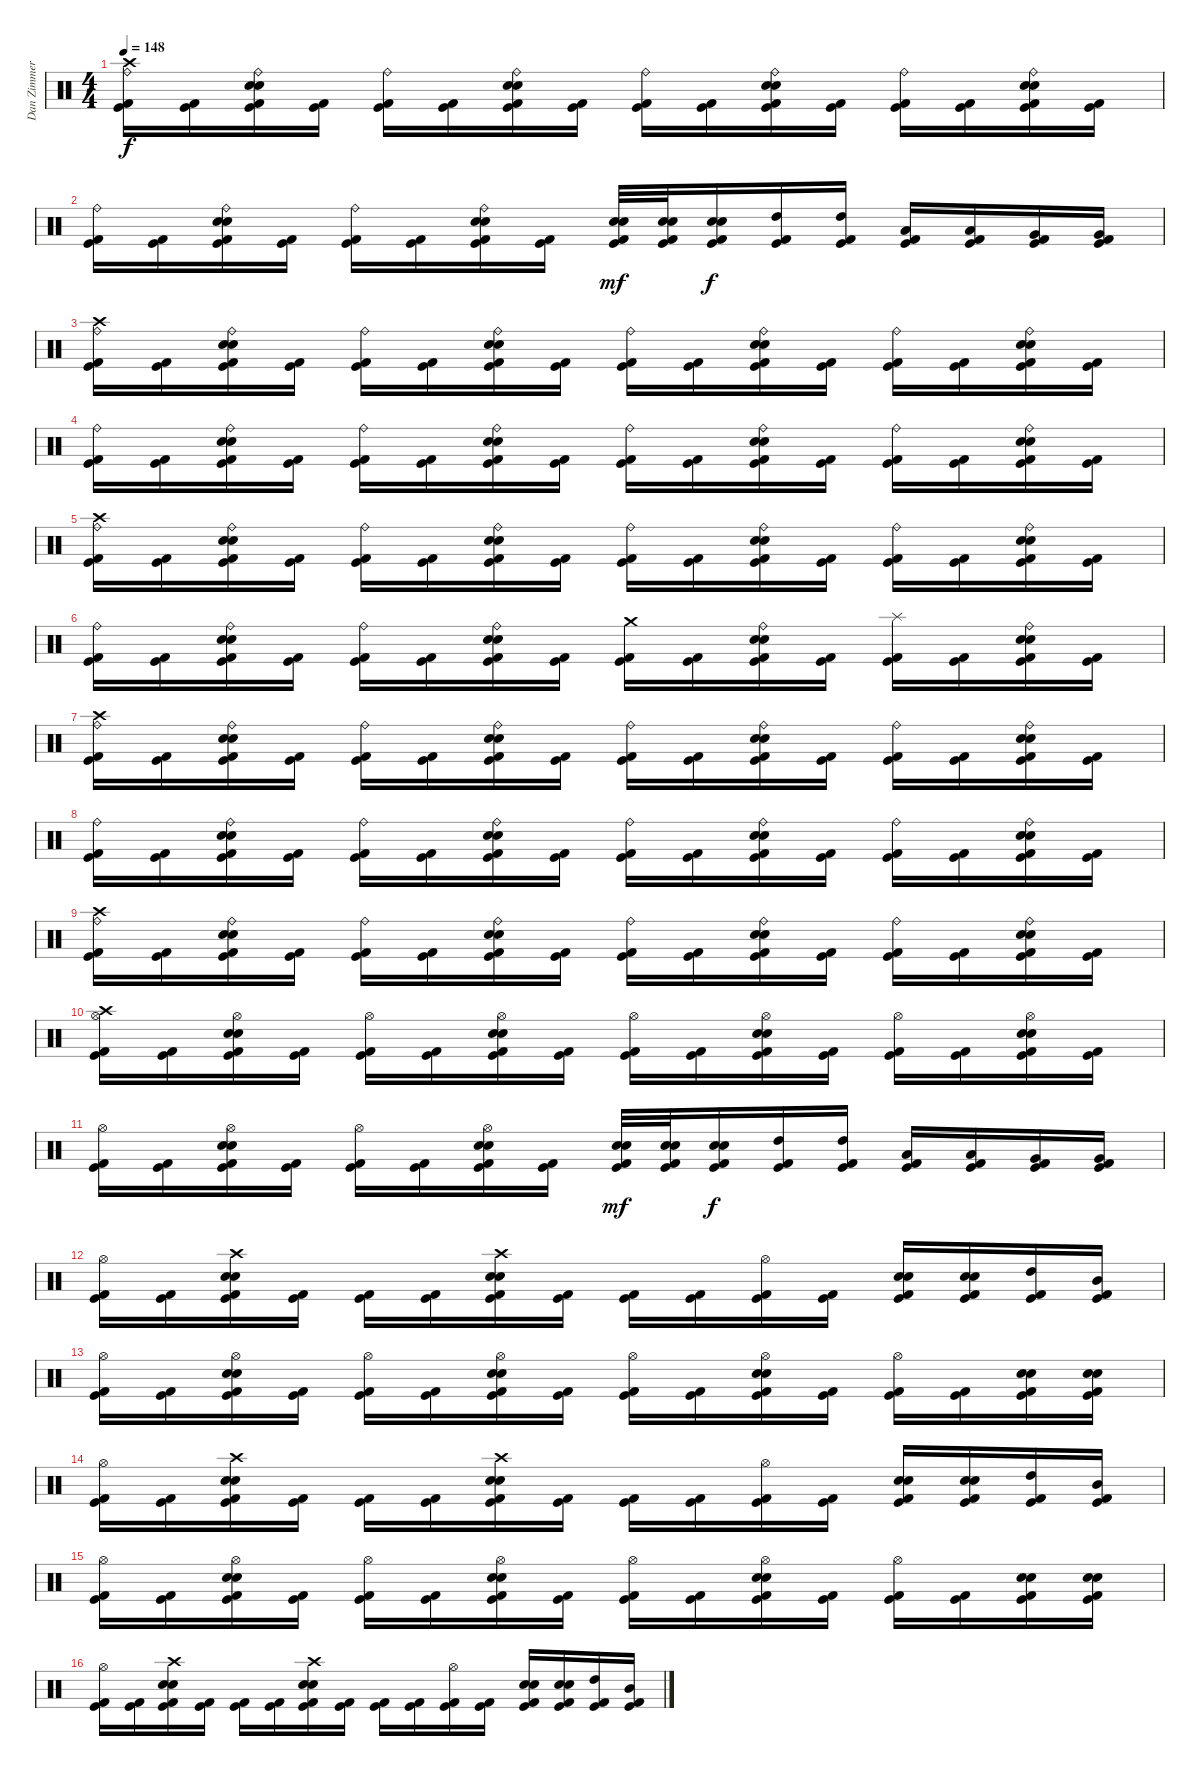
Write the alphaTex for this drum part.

\track ("Dan Zimmerman<Drum>" "Dan Zimmer") {instrument percussion}
\staff {score}
\articulation defaults
\ts (4 4)
\tempo 148
\clef neutral
\ks c
("Ride (bell)" "Crash high (hit)" "Kick (hit) 2" "Kick (hit)").16{dy f} ("Kick (hit) 2" "Kick (hit)").16 ("Ride (bell)" "Snare (hit) 2" "Electric Snare (hit)" "Kick (hit) 2" "Kick (hit)").16 ("Kick (hit) 2" "Kick (hit)").16 ("Ride (bell)" "Kick (hit) 2" "Kick (hit)").16 ("Kick (hit) 2" "Kick (hit)").16 ("Ride (bell)" "Snare (hit) 2" "Electric Snare (hit)" "Kick (hit) 2" "Kick (hit)").16 ("Kick (hit) 2" "Kick (hit)").16 ("Ride (bell)" "Kick (hit) 2" "Kick (hit)").16 ("Kick (hit) 2" "Kick (hit)").16 ("Ride (bell)" "Snare (hit) 2" "Electric Snare (hit)" "Kick (hit) 2" "Kick (hit)").16 ("Kick (hit) 2" "Kick (hit)").16 ("Ride (bell)" "Kick (hit) 2" "Kick (hit)").16 ("Kick (hit) 2" "Kick (hit)").16 ("Ride (bell)" "Snare (hit) 2" "Electric Snare (hit)" "Kick (hit) 2" "Kick (hit)").16 ("Kick (hit) 2" "Kick (hit)").16 |
("Ride (bell)" "Kick (hit) 2" "Kick (hit)").16 ("Kick (hit) 2" "Kick (hit)").16 ("Ride (bell)" "Snare (hit) 2" "Electric Snare (hit)" "Kick (hit) 2" "Kick (hit)").16 ("Kick (hit) 2" "Kick (hit)").16 ("Ride (bell)" "Kick (hit) 2" "Kick (hit)").16 ("Kick (hit) 2" "Kick (hit)").16 ("Ride (bell)" "Snare (hit) 2" "Electric Snare (hit)" "Kick (hit) 2" "Kick (hit)").16 ("Kick (hit) 2" "Kick (hit)").16 ("Snare (hit) 2" "Electric Snare (hit)" "Kick (hit) 2" "Kick (hit)").32{dy mf} ("Snare (hit) 2" "Electric Snare (hit)" "Kick (hit) 2" "Kick (hit)").32 ("Electric Snare (hit)" "Snare (hit) 2" "Kick (hit) 2" "Kick (hit)").16{dy f} ("High Tom (hit)" "Kick (hit) 2" "Kick (hit)").16 ("High Tom (hit)" "Kick (hit) 2" "Kick (hit)").16 ("Low Tom (hit)" "Kick (hit) 2" "Kick (hit)").16 ("Low Tom (hit)" "Kick (hit) 2" "Kick (hit)").16 ("Very Low Tom (hit)" "Kick (hit) 2" "Kick (hit)").16 ("Very Low Tom (hit)" "Kick (hit) 2" "Kick (hit)").16 |
("Ride (bell)" "Crash high (hit)" "Kick (hit) 2" "Kick (hit)").16 ("Kick (hit) 2" "Kick (hit)").16 ("Ride (bell)" "Snare (hit) 2" "Electric Snare (hit)" "Kick (hit) 2" "Kick (hit)").16 ("Kick (hit) 2" "Kick (hit)").16 ("Ride (bell)" "Kick (hit) 2" "Kick (hit)").16 ("Kick (hit) 2" "Kick (hit)").16 ("Ride (bell)" "Snare (hit) 2" "Electric Snare (hit)" "Kick (hit) 2" "Kick (hit)").16 ("Kick (hit) 2" "Kick (hit)").16 ("Ride (bell)" "Kick (hit) 2" "Kick (hit)").16 ("Kick (hit) 2" "Kick (hit)").16 ("Ride (bell)" "Snare (hit) 2" "Electric Snare (hit)" "Kick (hit) 2" "Kick (hit)").16 ("Kick (hit) 2" "Kick (hit)").16 ("Ride (bell)" "Kick (hit) 2" "Kick (hit)").16 ("Kick (hit) 2" "Kick (hit)").16 ("Ride (bell)" "Snare (hit) 2" "Electric Snare (hit)" "Kick (hit) 2" "Kick (hit)").16 ("Kick (hit) 2" "Kick (hit)").16 |
("Ride (bell)" "Kick (hit) 2" "Kick (hit)").16 ("Kick (hit) 2" "Kick (hit)").16 ("Ride (bell)" "Snare (hit) 2" "Electric Snare (hit)" "Kick (hit) 2" "Kick (hit)").16 ("Kick (hit) 2" "Kick (hit)").16 ("Ride (bell)" "Kick (hit) 2" "Kick (hit)").16 ("Kick (hit) 2" "Kick (hit)").16 ("Ride (bell)" "Snare (hit) 2" "Electric Snare (hit)" "Kick (hit) 2" "Kick (hit)").16 ("Kick (hit) 2" "Kick (hit)").16 ("Ride (bell)" "Kick (hit) 2" "Kick (hit)").16 ("Kick (hit) 2" "Kick (hit)").16 ("Ride (bell)" "Snare (hit) 2" "Electric Snare (hit)" "Kick (hit) 2" "Kick (hit)").16 ("Kick (hit) 2" "Kick (hit)").16 ("Ride (bell)" "Kick (hit) 2" "Kick (hit)").16 ("Kick (hit) 2" "Kick (hit)").16 ("Ride (bell)" "Snare (hit) 2" "Electric Snare (hit)" "Kick (hit) 2" "Kick (hit)").16 ("Kick (hit) 2" "Kick (hit)").16 |
("Ride (bell)" "Crash high (hit)" "Kick (hit) 2" "Kick (hit)").16 ("Kick (hit) 2" "Kick (hit)").16 ("Ride (bell)" "Snare (hit) 2" "Electric Snare (hit)" "Kick (hit) 2" "Kick (hit)").16 ("Kick (hit) 2" "Kick (hit)").16 ("Ride (bell)" "Kick (hit) 2" "Kick (hit)").16 ("Kick (hit) 2" "Kick (hit)").16 ("Ride (bell)" "Snare (hit) 2" "Electric Snare (hit)" "Kick (hit) 2" "Kick (hit)").16 ("Kick (hit) 2" "Kick (hit)").16 ("Ride (bell)" "Kick (hit) 2" "Kick (hit)").16 ("Kick (hit) 2" "Kick (hit)").16 ("Ride (bell)" "Snare (hit) 2" "Electric Snare (hit)" "Kick (hit) 2" "Kick (hit)").16 ("Kick (hit) 2" "Kick (hit)").16 ("Ride (bell)" "Kick (hit) 2" "Kick (hit)").16 ("Kick (hit) 2" "Kick (hit)").16 ("Ride (bell)" "Snare (hit) 2" "Electric Snare (hit)" "Kick (hit) 2" "Kick (hit)").16 ("Kick (hit) 2" "Kick (hit)").16 |
("Ride (bell)" "Kick (hit) 2" "Kick (hit)").16 ("Kick (hit) 2" "Kick (hit)").16 ("Ride (bell)" "Snare (hit) 2" "Electric Snare (hit)" "Kick (hit) 2" "Kick (hit)").16 ("Kick (hit) 2" "Kick (hit)").16 ("Ride (bell)" "Kick (hit) 2" "Kick (hit)").16 ("Kick (hit) 2" "Kick (hit)").16 ("Ride (bell)" "Snare (hit) 2" "Electric Snare (hit)" "Kick (hit) 2" "Kick (hit)").16 ("Kick (hit) 2" "Kick (hit)").16 ("Crash medium (hit)" "Kick (hit) 2" "Kick (hit)").16 ("Kick (hit) 2" "Kick (hit)").16 ("Ride (bell)" "Snare (hit) 2" "Electric Snare (hit)" "Kick (hit) 2" "Kick (hit)").16 ("Kick (hit) 2" "Kick (hit)").16 ("Splash (hit)" "Kick (hit) 2" "Kick (hit)").16 ("Kick (hit) 2" "Kick (hit)").16 ("Ride (bell)" "Snare (hit) 2" "Electric Snare (hit)" "Kick (hit) 2" "Kick (hit)").16 ("Kick (hit) 2" "Kick (hit)").16 |
("Ride (bell)" "Crash high (hit)" "Kick (hit) 2" "Kick (hit)").16 ("Kick (hit) 2" "Kick (hit)").16 ("Ride (bell)" "Snare (hit) 2" "Electric Snare (hit)" "Kick (hit) 2" "Kick (hit)").16 ("Kick (hit) 2" "Kick (hit)").16 ("Ride (bell)" "Kick (hit) 2" "Kick (hit)").16 ("Kick (hit) 2" "Kick (hit)").16 ("Ride (bell)" "Snare (hit) 2" "Electric Snare (hit)" "Kick (hit) 2" "Kick (hit)").16 ("Kick (hit) 2" "Kick (hit)").16 ("Ride (bell)" "Kick (hit) 2" "Kick (hit)").16 ("Kick (hit) 2" "Kick (hit)").16 ("Ride (bell)" "Snare (hit) 2" "Electric Snare (hit)" "Kick (hit) 2" "Kick (hit)").16 ("Kick (hit) 2" "Kick (hit)").16 ("Ride (bell)" "Kick (hit) 2" "Kick (hit)").16 ("Kick (hit) 2" "Kick (hit)").16 ("Ride (bell)" "Snare (hit) 2" "Electric Snare (hit)" "Kick (hit) 2" "Kick (hit)").16 ("Kick (hit) 2" "Kick (hit)").16 |
("Ride (bell)" "Kick (hit) 2" "Kick (hit)").16 ("Kick (hit) 2" "Kick (hit)").16 ("Ride (bell)" "Snare (hit) 2" "Electric Snare (hit)" "Kick (hit) 2" "Kick (hit)").16 ("Kick (hit) 2" "Kick (hit)").16 ("Ride (bell)" "Kick (hit) 2" "Kick (hit)").16 ("Kick (hit) 2" "Kick (hit)").16 ("Ride (bell)" "Snare (hit) 2" "Electric Snare (hit)" "Kick (hit) 2" "Kick (hit)").16 ("Kick (hit) 2" "Kick (hit)").16 ("Ride (bell)" "Kick (hit) 2" "Kick (hit)").16 ("Kick (hit) 2" "Kick (hit)").16 ("Ride (bell)" "Snare (hit) 2" "Electric Snare (hit)" "Kick (hit) 2" "Kick (hit)").16 ("Kick (hit) 2" "Kick (hit)").16 ("Ride (bell)" "Kick (hit) 2" "Kick (hit)").16 ("Kick (hit) 2" "Kick (hit)").16 ("Ride (bell)" "Snare (hit) 2" "Electric Snare (hit)" "Kick (hit) 2" "Kick (hit)").16 ("Kick (hit) 2" "Kick (hit)").16 |
("Ride (bell)" "Crash high (hit)" "Kick (hit) 2" "Kick (hit)").16 ("Kick (hit) 2" "Kick (hit)").16 ("Ride (bell)" "Snare (hit) 2" "Electric Snare (hit)" "Kick (hit) 2" "Kick (hit)").16 ("Kick (hit) 2" "Kick (hit)").16 ("Ride (bell)" "Kick (hit) 2" "Kick (hit)").16 ("Kick (hit) 2" "Kick (hit)").16 ("Ride (bell)" "Snare (hit) 2" "Electric Snare (hit)" "Kick (hit) 2" "Kick (hit)").16 ("Kick (hit) 2" "Kick (hit)").16 ("Ride (bell)" "Kick (hit) 2" "Kick (hit)").16 ("Kick (hit) 2" "Kick (hit)").16 ("Ride (bell)" "Snare (hit) 2" "Electric Snare (hit)" "Kick (hit) 2" "Kick (hit)").16 ("Kick (hit) 2" "Kick (hit)").16 ("Ride (bell)" "Kick (hit) 2" "Kick (hit)").16 ("Kick (hit) 2" "Kick (hit)").16 ("Ride (bell)" "Snare (hit) 2" "Electric Snare (hit)" "Kick (hit) 2" "Kick (hit)").16 ("Kick (hit) 2" "Kick (hit)").16 |
("Hi-Hat (open)" "Crash high (hit)" "Kick (hit) 2" "Kick (hit)").16 ("Kick (hit) 2" "Kick (hit)").16 ("Hi-Hat (open)" "Snare (hit) 2" "Electric Snare (hit)" "Kick (hit) 2" "Kick (hit)").16 ("Kick (hit) 2" "Kick (hit)").16 ("Hi-Hat (open)" "Kick (hit) 2" "Kick (hit)").16 ("Kick (hit) 2" "Kick (hit)").16 ("Hi-Hat (open)" "Snare (hit) 2" "Electric Snare (hit)" "Kick (hit) 2" "Kick (hit)").16 ("Kick (hit) 2" "Kick (hit)").16 ("Hi-Hat (open)" "Kick (hit) 2" "Kick (hit)").16 ("Kick (hit) 2" "Kick (hit)").16 ("Hi-Hat (open)" "Snare (hit) 2" "Electric Snare (hit)" "Kick (hit) 2" "Kick (hit)").16 ("Kick (hit) 2" "Kick (hit)").16 ("Hi-Hat (open)" "Kick (hit) 2" "Kick (hit)").16 ("Kick (hit) 2" "Kick (hit)").16 ("Hi-Hat (open)" "Snare (hit) 2" "Electric Snare (hit)" "Kick (hit) 2" "Kick (hit)").16 ("Kick (hit) 2" "Kick (hit)").16 |
("Hi-Hat (open)" "Kick (hit) 2" "Kick (hit)").16 ("Kick (hit) 2" "Kick (hit)").16 ("Hi-Hat (open)" "Snare (hit) 2" "Electric Snare (hit)" "Kick (hit) 2" "Kick (hit)").16 ("Kick (hit) 2" "Kick (hit)").16 ("Hi-Hat (open)" "Kick (hit) 2" "Kick (hit)").16 ("Kick (hit) 2" "Kick (hit)").16 ("Hi-Hat (open)" "Snare (hit) 2" "Electric Snare (hit)" "Kick (hit) 2" "Kick (hit)").16 ("Kick (hit) 2" "Kick (hit)").16 ("Snare (hit) 2" "Electric Snare (hit)" "Kick (hit) 2" "Kick (hit)").32{dy mf} ("Snare (hit) 2" "Electric Snare (hit)" "Kick (hit) 2" "Kick (hit)").32 ("Electric Snare (hit)" "Snare (hit) 2" "Kick (hit) 2" "Kick (hit)").16{dy f} ("High Tom (hit)" "Kick (hit) 2" "Kick (hit)").16 ("High Tom (hit)" "Kick (hit) 2" "Kick (hit)").16 ("Low Tom (hit)" "Kick (hit) 2" "Kick (hit)").16 ("Low Tom (hit)" "Kick (hit) 2" "Kick (hit)").16 ("Very Low Tom (hit)" "Kick (hit) 2" "Kick (hit)").16 ("Very Low Tom (hit)" "Kick (hit) 2" "Kick (hit)").16 |
("Hi-Hat (open)" "Kick (hit) 2" "Kick (hit)").16 ("Kick (hit) 2" "Kick (hit)").16 ("Crash high (hit)" "Snare (hit) 2" "Electric Snare (hit)" "Kick (hit) 2" "Kick (hit)").16 ("Kick (hit) 2" "Kick (hit)").16 ("Kick (hit) 2" "Kick (hit)").16 ("Kick (hit) 2" "Kick (hit)").16 ("Crash high (hit)" "Snare (hit) 2" "Electric Snare (hit)" "Kick (hit) 2" "Kick (hit)").16 ("Kick (hit) 2" "Kick (hit)").16 ("Kick (hit) 2" "Kick (hit)").16 ("Kick (hit) 2" "Kick (hit)").16 ("Hi-Hat (open)" "Kick (hit) 2" "Kick (hit)").16 ("Kick (hit) 2" "Kick (hit)").16 ("Snare (hit) 2" "Electric Snare (hit)" "Kick (hit) 2" "Kick (hit)").16 ("Snare (hit) 2" "Electric Snare (hit)" "Kick (hit) 2" "Kick (hit)").16 ("High Tom (hit)" "Kick (hit) 2" "Kick (hit)").16 ("Mid Tom (hit)" "Kick (hit) 2" "Kick (hit)").16 |
("Hi-Hat (open)" "Kick (hit) 2" "Kick (hit)").16 ("Kick (hit) 2" "Kick (hit)").16 ("Hi-Hat (open)" "Snare (hit) 2" "Electric Snare (hit)" "Kick (hit) 2" "Kick (hit)").16 ("Kick (hit) 2" "Kick (hit)").16 ("Hi-Hat (open)" "Kick (hit) 2" "Kick (hit)").16 ("Kick (hit) 2" "Kick (hit)").16 ("Hi-Hat (open)" "Snare (hit) 2" "Electric Snare (hit)" "Kick (hit) 2" "Kick (hit)").16 ("Kick (hit) 2" "Kick (hit)").16 ("Hi-Hat (open)" "Kick (hit) 2" "Kick (hit)").16 ("Kick (hit) 2" "Kick (hit)").16 ("Hi-Hat (open)" "Snare (hit) 2" "Electric Snare (hit)" "Kick (hit) 2" "Kick (hit)").16 ("Kick (hit) 2" "Kick (hit)").16 ("Hi-Hat (open)" "Kick (hit) 2" "Kick (hit)").16 ("Kick (hit) 2" "Kick (hit)").16 ("Snare (hit) 2" "Electric Snare (hit)" "Kick (hit) 2" "Kick (hit)").16 ("Snare (hit) 2" "Electric Snare (hit)" "Kick (hit) 2" "Kick (hit)").16 |
("Hi-Hat (open)" "Kick (hit) 2" "Kick (hit)").16 ("Kick (hit) 2" "Kick (hit)").16 ("Crash high (hit)" "Snare (hit) 2" "Electric Snare (hit)" "Kick (hit) 2" "Kick (hit)").16 ("Kick (hit) 2" "Kick (hit)").16 ("Kick (hit) 2" "Kick (hit)").16 ("Kick (hit) 2" "Kick (hit)").16 ("Crash high (hit)" "Snare (hit) 2" "Electric Snare (hit)" "Kick (hit) 2" "Kick (hit)").16 ("Kick (hit) 2" "Kick (hit)").16 ("Kick (hit) 2" "Kick (hit)").16 ("Kick (hit) 2" "Kick (hit)").16 ("Hi-Hat (open)" "Kick (hit) 2" "Kick (hit)").16 ("Kick (hit) 2" "Kick (hit)").16 ("Snare (hit) 2" "Electric Snare (hit)" "Kick (hit) 2" "Kick (hit)").16 ("Snare (hit) 2" "Electric Snare (hit)" "Kick (hit) 2" "Kick (hit)").16 ("High Tom (hit)" "Kick (hit) 2" "Kick (hit)").16 ("Mid Tom (hit)" "Kick (hit) 2" "Kick (hit)").16 |
("Hi-Hat (open)" "Kick (hit) 2" "Kick (hit)").16 ("Kick (hit) 2" "Kick (hit)").16 ("Hi-Hat (open)" "Snare (hit) 2" "Electric Snare (hit)" "Kick (hit) 2" "Kick (hit)").16 ("Kick (hit) 2" "Kick (hit)").16 ("Hi-Hat (open)" "Kick (hit) 2" "Kick (hit)").16 ("Kick (hit) 2" "Kick (hit)").16 ("Hi-Hat (open)" "Snare (hit) 2" "Electric Snare (hit)" "Kick (hit) 2" "Kick (hit)").16 ("Kick (hit) 2" "Kick (hit)").16 ("Hi-Hat (open)" "Kick (hit) 2" "Kick (hit)").16 ("Kick (hit) 2" "Kick (hit)").16 ("Hi-Hat (open)" "Snare (hit) 2" "Electric Snare (hit)" "Kick (hit) 2" "Kick (hit)").16 ("Kick (hit) 2" "Kick (hit)").16 ("Hi-Hat (open)" "Kick (hit) 2" "Kick (hit)").16 ("Kick (hit) 2" "Kick (hit)").16 ("Snare (hit) 2" "Electric Snare (hit)" "Kick (hit) 2" "Kick (hit)").16 ("Snare (hit) 2" "Electric Snare (hit)" "Kick (hit) 2" "Kick (hit)").16 |
("Hi-Hat (open)" "Kick (hit) 2" "Kick (hit)").16 ("Kick (hit) 2" "Kick (hit)").16 ("Crash high (hit)" "Snare (hit) 2" "Electric Snare (hit)" "Kick (hit) 2" "Kick (hit)").16 ("Kick (hit) 2" "Kick (hit)").16 ("Kick (hit) 2" "Kick (hit)").16 ("Kick (hit) 2" "Kick (hit)").16 ("Crash high (hit)" "Snare (hit) 2" "Electric Snare (hit)" "Kick (hit) 2" "Kick (hit)").16 ("Kick (hit) 2" "Kick (hit)").16 ("Kick (hit) 2" "Kick (hit)").16 ("Kick (hit) 2" "Kick (hit)").16 ("Hi-Hat (open)" "Kick (hit) 2" "Kick (hit)").16 ("Kick (hit) 2" "Kick (hit)").16 ("Snare (hit) 2" "Electric Snare (hit)" "Kick (hit) 2" "Kick (hit)").16 ("Snare (hit) 2" "Electric Snare (hit)" "Kick (hit) 2" "Kick (hit)").16 ("High Tom (hit)" "Kick (hit) 2" "Kick (hit)").16 ("Mid Tom (hit)" "Kick (hit) 2" "Kick (hit)").16
